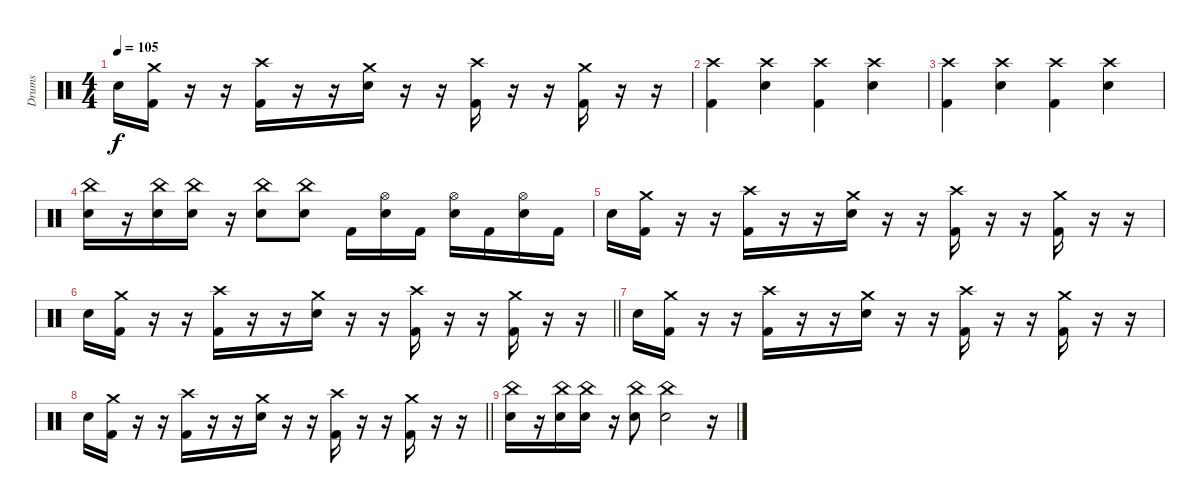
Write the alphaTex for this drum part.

\track ("Drums" "Drums") {instrument percussion}
\staff {score}
\articulation defaults
\ts (4 4)
\tempo 105
\clef neutral
\ks c "Electric Snare (hit)".16{dy f}
("Crash medium (hit)" "Kick (hit) 2").16 r.16 r.16 ("Crash high (hit)" "Kick (hit) 2").16 r.16 r.16 ("Crash medium (hit)" "Electric Snare (hit)").16 r.16 r.16 ("Crash high (hit)" "Kick (hit) 2").16 r.16 r.16 ("Crash medium (hit)" "Kick (hit) 2").16 r.16 r.16 |
("Crash high (hit)" "Kick (hit) 2").4 ("Crash high (hit)" "Electric Snare (hit)").4 ("Crash high (hit)" "Kick (hit) 2").4 ("Crash high (hit)" "Electric Snare (hit)").4 |
("Crash high (hit)" "Kick (hit) 2").4 ("Crash high (hit)" "Electric Snare (hit)").4 ("Crash high (hit)" "Kick (hit) 2").4 ("Crash high (hit)" "Electric Snare (hit)").4 |
("China (hit)" "Electric Snare (hit)").16 r.16 ("China (hit)" "Electric Snare (hit)").16 ("China (hit)" "Electric Snare (hit)").16 r.16 ("China (hit)" "Electric Snare (hit)").8 ("China (hit)" "Electric Snare (hit)").8 "Kick (hit) 2".16 ("Hi-Hat (open)" "Electric Snare (hit)").16 "Kick (hit) 2".16 ("Hi-Hat (open)" "Electric Snare (hit)").16 "Kick (hit) 2".16 ("Hi-Hat (open)" "Electric Snare (hit)").16 "Kick (hit) 2".16 |
"Electric Snare (hit)".16 ("Crash medium (hit)" "Kick (hit) 2").16 r.16 r.16 ("Crash high (hit)" "Kick (hit) 2").16 r.16 r.16 ("Crash medium (hit)" "Electric Snare (hit)").16 r.16 r.16 ("Crash high (hit)" "Kick (hit) 2").16 r.16 r.16 ("Crash medium (hit)" "Kick (hit) 2").16 r.16 r.16 |
\barLineRight lightlight "Electric Snare (hit)".16
("Crash medium (hit)" "Kick (hit) 2").16 r.16 r.16 ("Crash high (hit)" "Kick (hit) 2").16 r.16 r.16 ("Crash medium (hit)" "Electric Snare (hit)").16 r.16 r.16 ("Crash high (hit)" "Kick (hit) 2").16 r.16 r.16 ("Crash medium (hit)" "Kick (hit) 2").16 r.16 r.16 |
"Electric Snare (hit)".16 ("Crash medium (hit)" "Kick (hit) 2").16 r.16 r.16 ("Crash high (hit)" "Kick (hit) 2").16 r.16 r.16 ("Crash medium (hit)" "Electric Snare (hit)").16 r.16 r.16 ("Crash high (hit)" "Kick (hit) 2").16 r.16 r.16 ("Crash medium (hit)" "Kick (hit) 2").16 r.16 r.16 |
\barLineRight lightlight "Electric Snare (hit)".16
("Crash medium (hit)" "Kick (hit) 2").16 r.16 r.16 ("Crash high (hit)" "Kick (hit) 2").16 r.16 r.16 ("Crash medium (hit)" "Electric Snare (hit)").16 r.16 r.16 ("Crash high (hit)" "Kick (hit) 2").16 r.16 r.16 ("Crash medium (hit)" "Kick (hit) 2").16 r.16 r.16 |
("China (hit)" "Electric Snare (hit)").16 r.16 ("China (hit)" "Electric Snare (hit)").16 ("China (hit)" "Electric Snare (hit)").16 r.16 ("China (hit)" "Electric Snare (hit)").8 ("China (hit)" "Electric Snare (hit)").2 r.16
